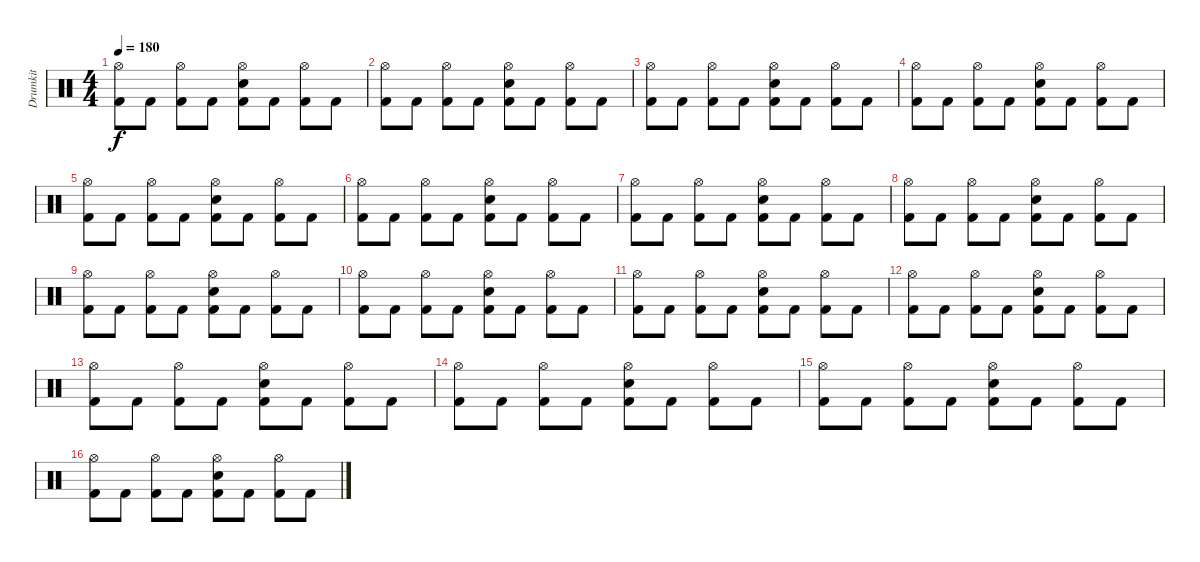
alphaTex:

\track ("Drumkit" "Drumkit") {instrument percussion}
\staff {score}
\articulation defaults
\ts (4 4)
\tempo 180
\clef neutral
\ks c
("Hi-Hat (open)" "Kick (hit) 2").8{dy f} "Kick (hit) 2".8 ("Hi-Hat (open)" "Kick (hit) 2").8 "Kick (hit) 2".8 ("Hi-Hat (open)" "Snare (hit) 2" "Kick (hit) 2").8 "Kick (hit) 2".8 ("Hi-Hat (open)" "Kick (hit) 2").8 "Kick (hit) 2".8 |
("Hi-Hat (open)" "Kick (hit) 2").8 "Kick (hit) 2".8 ("Hi-Hat (open)" "Kick (hit) 2").8 "Kick (hit) 2".8 ("Hi-Hat (open)" "Snare (hit) 2" "Kick (hit) 2").8 "Kick (hit) 2".8 ("Hi-Hat (open)" "Kick (hit) 2").8 "Kick (hit) 2".8 |
("Hi-Hat (open)" "Kick (hit) 2").8 "Kick (hit) 2".8 ("Hi-Hat (open)" "Kick (hit) 2").8 "Kick (hit) 2".8 ("Hi-Hat (open)" "Snare (hit) 2" "Kick (hit) 2").8 "Kick (hit) 2".8 ("Hi-Hat (open)" "Kick (hit) 2").8 "Kick (hit) 2".8 |
("Hi-Hat (open)" "Kick (hit) 2").8 "Kick (hit) 2".8 ("Hi-Hat (open)" "Kick (hit) 2").8 "Kick (hit) 2".8 ("Hi-Hat (open)" "Snare (hit) 2" "Kick (hit) 2").8 "Kick (hit) 2".8 ("Hi-Hat (open)" "Kick (hit) 2").8 "Kick (hit) 2".8 |
("Hi-Hat (open)" "Kick (hit) 2").8 "Kick (hit) 2".8 ("Hi-Hat (open)" "Kick (hit) 2").8 "Kick (hit) 2".8 ("Hi-Hat (open)" "Snare (hit) 2" "Kick (hit) 2").8 "Kick (hit) 2".8 ("Hi-Hat (open)" "Kick (hit) 2").8 "Kick (hit) 2".8 |
("Hi-Hat (open)" "Kick (hit) 2").8 "Kick (hit) 2".8 ("Hi-Hat (open)" "Kick (hit) 2").8 "Kick (hit) 2".8 ("Hi-Hat (open)" "Snare (hit) 2" "Kick (hit) 2").8 "Kick (hit) 2".8 ("Hi-Hat (open)" "Kick (hit) 2").8 "Kick (hit) 2".8 |
("Hi-Hat (open)" "Kick (hit) 2").8 "Kick (hit) 2".8 ("Hi-Hat (open)" "Kick (hit) 2").8 "Kick (hit) 2".8 ("Hi-Hat (open)" "Snare (hit) 2" "Kick (hit) 2").8 "Kick (hit) 2".8 ("Hi-Hat (open)" "Kick (hit) 2").8 "Kick (hit) 2".8 |
("Hi-Hat (open)" "Kick (hit) 2").8 "Kick (hit) 2".8 ("Hi-Hat (open)" "Kick (hit) 2").8 "Kick (hit) 2".8 ("Hi-Hat (open)" "Snare (hit) 2" "Kick (hit) 2").8 "Kick (hit) 2".8 ("Hi-Hat (open)" "Kick (hit) 2").8 "Kick (hit) 2".8 |
("Hi-Hat (open)" "Kick (hit) 2").8 "Kick (hit) 2".8 ("Hi-Hat (open)" "Kick (hit) 2").8 "Kick (hit) 2".8 ("Hi-Hat (open)" "Snare (hit) 2" "Kick (hit) 2").8 "Kick (hit) 2".8 ("Hi-Hat (open)" "Kick (hit) 2").8 "Kick (hit) 2".8 |
("Hi-Hat (open)" "Kick (hit) 2").8 "Kick (hit) 2".8 ("Hi-Hat (open)" "Kick (hit) 2").8 "Kick (hit) 2".8 ("Hi-Hat (open)" "Snare (hit) 2" "Kick (hit) 2").8 "Kick (hit) 2".8 ("Hi-Hat (open)" "Kick (hit) 2").8 "Kick (hit) 2".8 |
("Hi-Hat (open)" "Kick (hit) 2").8 "Kick (hit) 2".8 ("Hi-Hat (open)" "Kick (hit) 2").8 "Kick (hit) 2".8 ("Hi-Hat (open)" "Snare (hit) 2" "Kick (hit) 2").8 "Kick (hit) 2".8 ("Hi-Hat (open)" "Kick (hit) 2").8 "Kick (hit) 2".8 |
("Hi-Hat (open)" "Kick (hit) 2").8 "Kick (hit) 2".8 ("Hi-Hat (open)" "Kick (hit) 2").8 "Kick (hit) 2".8 ("Hi-Hat (open)" "Snare (hit) 2" "Kick (hit) 2").8 "Kick (hit) 2".8 ("Hi-Hat (open)" "Kick (hit) 2").8 "Kick (hit) 2".8 |
("Hi-Hat (open)" "Kick (hit) 2").8 "Kick (hit) 2".8 ("Hi-Hat (open)" "Kick (hit) 2").8 "Kick (hit) 2".8 ("Hi-Hat (open)" "Snare (hit) 2" "Kick (hit) 2").8 "Kick (hit) 2".8 ("Hi-Hat (open)" "Kick (hit) 2").8 "Kick (hit) 2".8 |
("Hi-Hat (open)" "Kick (hit) 2").8 "Kick (hit) 2".8 ("Hi-Hat (open)" "Kick (hit) 2").8 "Kick (hit) 2".8 ("Hi-Hat (open)" "Snare (hit) 2" "Kick (hit) 2").8 "Kick (hit) 2".8 ("Hi-Hat (open)" "Kick (hit) 2").8 "Kick (hit) 2".8 |
("Hi-Hat (open)" "Kick (hit) 2").8 "Kick (hit) 2".8 ("Hi-Hat (open)" "Kick (hit) 2").8 "Kick (hit) 2".8 ("Hi-Hat (open)" "Snare (hit) 2" "Kick (hit) 2").8 "Kick (hit) 2".8 ("Hi-Hat (open)" "Kick (hit) 2").8 "Kick (hit) 2".8 |
("Hi-Hat (open)" "Kick (hit) 2").8 "Kick (hit) 2".8 ("Hi-Hat (open)" "Kick (hit) 2").8 "Kick (hit) 2".8 ("Hi-Hat (open)" "Snare (hit) 2" "Kick (hit) 2").8 "Kick (hit) 2".8 ("Hi-Hat (open)" "Kick (hit) 2").8 "Kick (hit) 2".8
